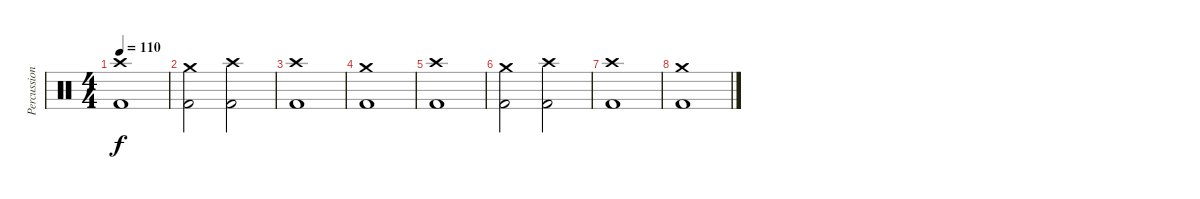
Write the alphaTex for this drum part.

\track ("Percussion" "Percussion") {instrument percussion bank 36}
\staff {score}
\articulation defaults
\ts (4 4)
\tempo 110
\clef neutral
\ks c
("Crash high (hit)" "Kick (hit) 2").1{dy f} |
("Crash medium (hit)" "Kick (hit) 2").2 ("Crash high (hit)" "Kick (hit) 2").2 |
("Crash high (hit)" "Kick (hit) 2").1 |
("Crash medium (hit)" "Kick (hit) 2").1 |
("Crash high (hit)" "Kick (hit) 2").1 |
("Crash medium (hit)" "Kick (hit) 2").2 ("Crash high (hit)" "Kick (hit) 2").2 |
("Crash high (hit)" "Kick (hit) 2").1 |
("Crash medium (hit)" "Kick (hit) 2").1
